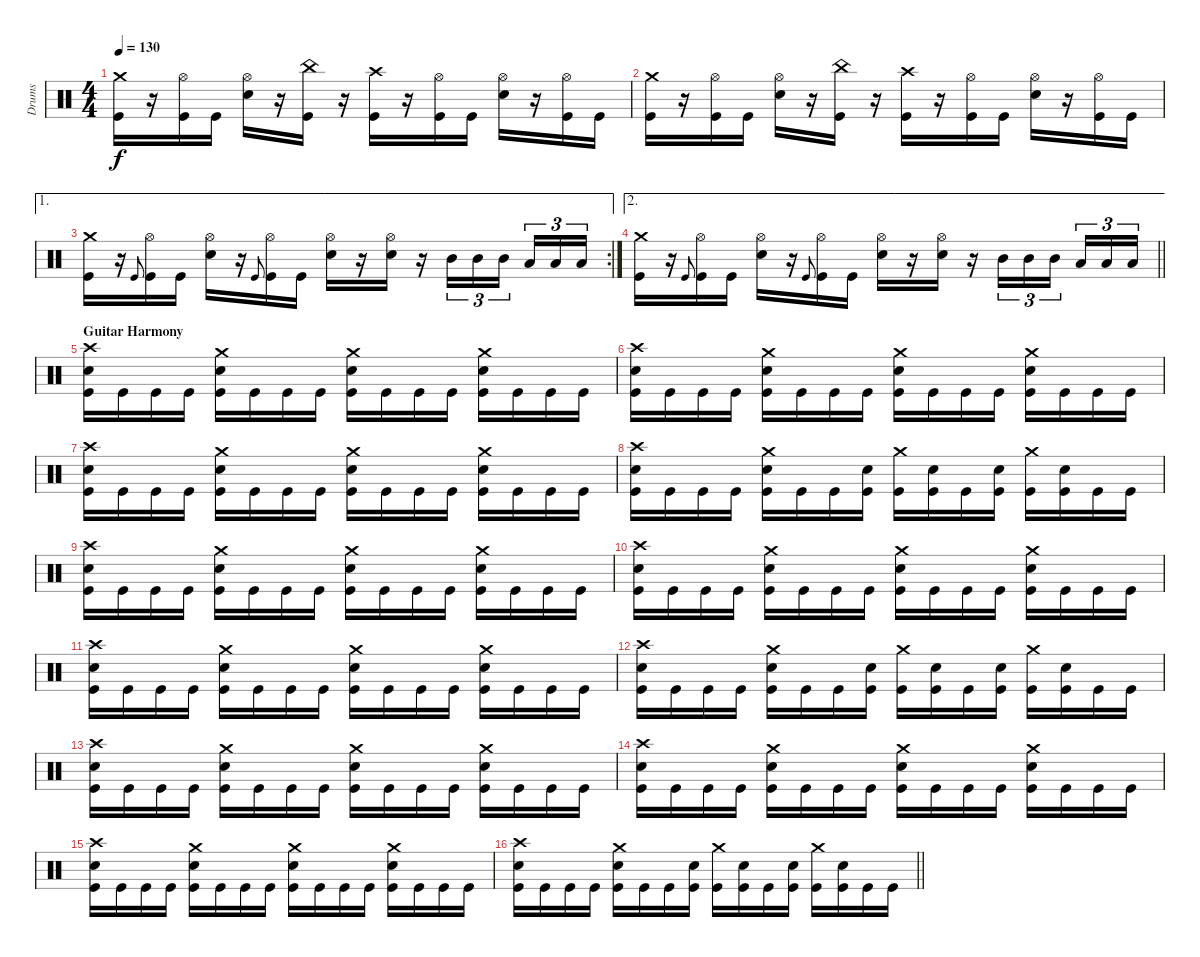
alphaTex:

\track ("Drums" "Drums") {instrument percussion}
\staff {score}
\articulation defaults
\ts (4 4)
\tempo 130
\clef neutral
\ks aminor
("Crash medium (hit)" "Kick (hit)").16{dy f} r.16 ("Hi-Hat (open)" "Kick (hit)").16 "Kick (hit)".16 ("Hi-Hat (open)" "Electric Snare (hit)").16 r.16 ("China (hit)" "Kick (hit)").16 r.16 ("Crash high (hit)" "Kick (hit)").16 r.16 ("Hi-Hat (open)" "Kick (hit)").16 "Kick (hit)".16 ("Hi-Hat (open)" "Electric Snare (hit)").16 r.16 ("Hi-Hat (open)" "Kick (hit)").16 "Kick (hit)".16 |
("Crash medium (hit)" "Kick (hit)").16 r.16 ("Hi-Hat (open)" "Kick (hit)").16 "Kick (hit)".16 ("Hi-Hat (open)" "Electric Snare (hit)").16 r.16 ("China (hit)" "Kick (hit)").16 r.16 ("Crash high (hit)" "Kick (hit)").16 r.16 ("Hi-Hat (open)" "Kick (hit)").16 "Kick (hit)".16 ("Hi-Hat (open)" "Electric Snare (hit)").16 r.16 ("Hi-Hat (open)" "Kick (hit)").16 "Kick (hit)".16 |
\ae 1
\rc 2
("Crash medium (hit)" "Kick (hit)").16 r.16 "Kick (hit)".8{gr onbeat} ("Hi-Hat (open)" "Kick (hit)").16 "Kick (hit)".16 ("Hi-Hat (open)" "Electric Snare (hit)").16 r.16 "Kick (hit)".8{gr onbeat} ("Hi-Hat (open)" "Kick (hit)").16 "Kick (hit)".16 ("Hi-Hat (open)" "Electric Snare (hit)").16 r.16 ("Hi-Hat (open)" "Electric Snare (hit)").16 r.16 "Mid Tom (hit)".16{tu (3 2)} "Mid Tom (hit)".16{tu (3 2)} "Mid Tom (hit)".16{tu (3 2) beam splitsecondary} "Low Tom (hit)".16{tu (3 2)} "Low Tom (hit)".16{tu (3 2)} "Low Tom (hit)".16{tu (3 2)} |
\ae 2
\barLineRight lightlight
("Crash medium (hit)" "Kick (hit)").16 r.16 "Kick (hit)".8{gr onbeat} ("Hi-Hat (open)" "Kick (hit)").16 "Kick (hit)".16 ("Hi-Hat (open)" "Electric Snare (hit)").16 r.16 "Kick (hit)".8{gr onbeat} ("Hi-Hat (open)" "Kick (hit)").16 "Kick (hit)".16 ("Hi-Hat (open)" "Electric Snare (hit)").16 r.16 ("Hi-Hat (open)" "Electric Snare (hit)").16 r.16 "Mid Tom (hit)".16{tu (3 2)} "Mid Tom (hit)".16{tu (3 2)} "Mid Tom (hit)".16{tu (3 2) beam splitsecondary} "Low Tom (hit)".16{tu (3 2)} "Low Tom (hit)".16{tu (3 2)} "Low Tom (hit)".16{tu (3 2)} |
\section ("" "Guitar Harmony")
("Crash high (hit)" "Electric Snare (hit)" "Kick (hit)").16 "Kick (hit)".16 "Kick (hit)".16 "Kick (hit)".16 ("Crash medium (hit)" "Electric Snare (hit)" "Kick (hit)").16 "Kick (hit)".16 "Kick (hit)".16 "Kick (hit)".16 ("Crash medium (hit)" "Electric Snare (hit)" "Kick (hit)").16 "Kick (hit)".16 "Kick (hit)".16 "Kick (hit)".16 ("Crash medium (hit)" "Electric Snare (hit)" "Kick (hit)").16 "Kick (hit)".16 "Kick (hit)".16 "Kick (hit)".16 |
("Crash high (hit)" "Electric Snare (hit)" "Kick (hit)").16 "Kick (hit)".16 "Kick (hit)".16 "Kick (hit)".16 ("Crash medium (hit)" "Electric Snare (hit)" "Kick (hit)").16 "Kick (hit)".16 "Kick (hit)".16 "Kick (hit)".16 ("Crash medium (hit)" "Electric Snare (hit)" "Kick (hit)").16 "Kick (hit)".16 "Kick (hit)".16 "Kick (hit)".16 ("Crash medium (hit)" "Electric Snare (hit)" "Kick (hit)").16 "Kick (hit)".16 "Kick (hit)".16 "Kick (hit)".16 |
("Crash high (hit)" "Electric Snare (hit)" "Kick (hit)").16 "Kick (hit)".16 "Kick (hit)".16 "Kick (hit)".16 ("Crash medium (hit)" "Electric Snare (hit)" "Kick (hit)").16 "Kick (hit)".16 "Kick (hit)".16 "Kick (hit)".16 ("Crash medium (hit)" "Electric Snare (hit)" "Kick (hit)").16 "Kick (hit)".16 "Kick (hit)".16 "Kick (hit)".16 ("Crash medium (hit)" "Electric Snare (hit)" "Kick (hit)").16 "Kick (hit)".16 "Kick (hit)".16 "Kick (hit)".16 |
("Crash high (hit)" "Electric Snare (hit)" "Kick (hit)").16 "Kick (hit)".16 "Kick (hit)".16 "Kick (hit)".16 ("Crash medium (hit)" "Electric Snare (hit)" "Kick (hit)").16 "Kick (hit)".16 "Kick (hit)".16 ("Electric Snare (hit)" "Kick (hit)").16 ("Crash medium (hit)" "Kick (hit)").16 ("Electric Snare (hit)" "Kick (hit)").16 "Kick (hit)".16 ("Electric Snare (hit)" "Kick (hit)").16 ("Crash medium (hit)" "Kick (hit)").16 ("Electric Snare (hit)" "Kick (hit)").16 "Kick (hit)".16 "Kick (hit)".16 |
("Crash high (hit)" "Electric Snare (hit)" "Kick (hit)").16 "Kick (hit)".16 "Kick (hit)".16 "Kick (hit)".16 ("Crash medium (hit)" "Electric Snare (hit)" "Kick (hit)").16 "Kick (hit)".16 "Kick (hit)".16 "Kick (hit)".16 ("Crash medium (hit)" "Electric Snare (hit)" "Kick (hit)").16 "Kick (hit)".16 "Kick (hit)".16 "Kick (hit)".16 ("Crash medium (hit)" "Electric Snare (hit)" "Kick (hit)").16 "Kick (hit)".16 "Kick (hit)".16 "Kick (hit)".16 |
("Crash high (hit)" "Electric Snare (hit)" "Kick (hit)").16 "Kick (hit)".16 "Kick (hit)".16 "Kick (hit)".16 ("Crash medium (hit)" "Electric Snare (hit)" "Kick (hit)").16 "Kick (hit)".16 "Kick (hit)".16 "Kick (hit)".16 ("Crash medium (hit)" "Electric Snare (hit)" "Kick (hit)").16 "Kick (hit)".16 "Kick (hit)".16 "Kick (hit)".16 ("Crash medium (hit)" "Electric Snare (hit)" "Kick (hit)").16 "Kick (hit)".16 "Kick (hit)".16 "Kick (hit)".16 |
("Crash high (hit)" "Electric Snare (hit)" "Kick (hit)").16 "Kick (hit)".16 "Kick (hit)".16 "Kick (hit)".16 ("Crash medium (hit)" "Electric Snare (hit)" "Kick (hit)").16 "Kick (hit)".16 "Kick (hit)".16 "Kick (hit)".16 ("Crash medium (hit)" "Electric Snare (hit)" "Kick (hit)").16 "Kick (hit)".16 "Kick (hit)".16 "Kick (hit)".16 ("Crash medium (hit)" "Electric Snare (hit)" "Kick (hit)").16 "Kick (hit)".16 "Kick (hit)".16 "Kick (hit)".16 |
("Crash high (hit)" "Electric Snare (hit)" "Kick (hit)").16 "Kick (hit)".16 "Kick (hit)".16 "Kick (hit)".16 ("Crash medium (hit)" "Electric Snare (hit)" "Kick (hit)").16 "Kick (hit)".16 "Kick (hit)".16 ("Electric Snare (hit)" "Kick (hit)").16 ("Crash medium (hit)" "Kick (hit)").16 ("Electric Snare (hit)" "Kick (hit)").16 "Kick (hit)".16 ("Electric Snare (hit)" "Kick (hit)").16 ("Crash medium (hit)" "Kick (hit)").16 ("Electric Snare (hit)" "Kick (hit)").16 "Kick (hit)".16 "Kick (hit)".16 |
("Crash high (hit)" "Electric Snare (hit)" "Kick (hit)").16 "Kick (hit)".16 "Kick (hit)".16 "Kick (hit)".16 ("Crash medium (hit)" "Electric Snare (hit)" "Kick (hit)").16 "Kick (hit)".16 "Kick (hit)".16 "Kick (hit)".16 ("Crash medium (hit)" "Electric Snare (hit)" "Kick (hit)").16 "Kick (hit)".16 "Kick (hit)".16 "Kick (hit)".16 ("Crash medium (hit)" "Electric Snare (hit)" "Kick (hit)").16 "Kick (hit)".16 "Kick (hit)".16 "Kick (hit)".16 |
("Crash high (hit)" "Electric Snare (hit)" "Kick (hit)").16 "Kick (hit)".16 "Kick (hit)".16 "Kick (hit)".16 ("Crash medium (hit)" "Electric Snare (hit)" "Kick (hit)").16 "Kick (hit)".16 "Kick (hit)".16 "Kick (hit)".16 ("Crash medium (hit)" "Electric Snare (hit)" "Kick (hit)").16 "Kick (hit)".16 "Kick (hit)".16 "Kick (hit)".16 ("Crash medium (hit)" "Electric Snare (hit)" "Kick (hit)").16 "Kick (hit)".16 "Kick (hit)".16 "Kick (hit)".16 |
("Crash high (hit)" "Electric Snare (hit)" "Kick (hit)").16 "Kick (hit)".16 "Kick (hit)".16 "Kick (hit)".16 ("Crash medium (hit)" "Electric Snare (hit)" "Kick (hit)").16 "Kick (hit)".16 "Kick (hit)".16 "Kick (hit)".16 ("Crash medium (hit)" "Electric Snare (hit)" "Kick (hit)").16 "Kick (hit)".16 "Kick (hit)".16 "Kick (hit)".16 ("Crash medium (hit)" "Electric Snare (hit)" "Kick (hit)").16 "Kick (hit)".16 "Kick (hit)".16 "Kick (hit)".16 |
\barLineRight lightlight
("Crash high (hit)" "Electric Snare (hit)" "Kick (hit)").16 "Kick (hit)".16 "Kick (hit)".16 "Kick (hit)".16 ("Crash medium (hit)" "Electric Snare (hit)" "Kick (hit)").16 "Kick (hit)".16 "Kick (hit)".16 ("Electric Snare (hit)" "Kick (hit)").16 ("Crash medium (hit)" "Kick (hit)").16 ("Electric Snare (hit)" "Kick (hit)").16 "Kick (hit)".16 ("Electric Snare (hit)" "Kick (hit)").16 ("Crash medium (hit)" "Kick (hit)").16 ("Electric Snare (hit)" "Kick (hit)").16 "Kick (hit)".16 "Kick (hit)".16
